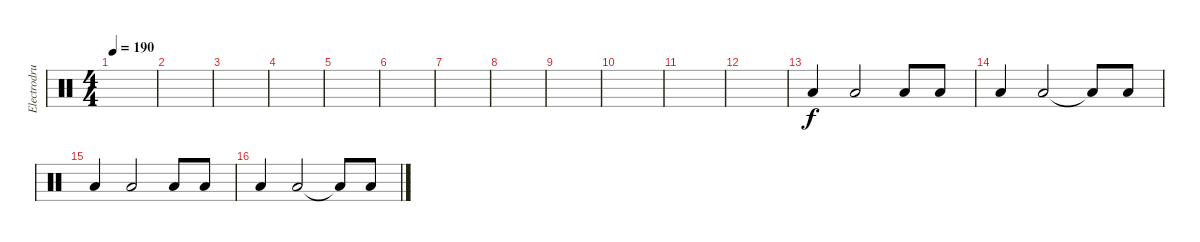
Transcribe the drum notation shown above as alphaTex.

\track ("Electrodrums3" "Electrodru") {instrument percussion}
\staff {score}
\articulation defaults
\ts (4 4)
\tempo 190
\clef neutral
\ks c
|
|
|
|
|
|
|
|
|
|
|
|
"Low Floor Tom (hit)".4 "Low Floor Tom (hit)".2 "Low Floor Tom (hit)".8 "Low Floor Tom (hit)".8 |
"Low Floor Tom (hit)".4 "Low Floor Tom (hit)".2 "Low Floor Tom (hit)"{t}.8 "Low Floor Tom (hit)".8 |
"Low Floor Tom (hit)".4 "Low Floor Tom (hit)".2 "Low Floor Tom (hit)".8 "Low Floor Tom (hit)".8 |
"Low Floor Tom (hit)".4 "Low Floor Tom (hit)".2 "Low Floor Tom (hit)"{t}.8 "Low Floor Tom (hit)".8
